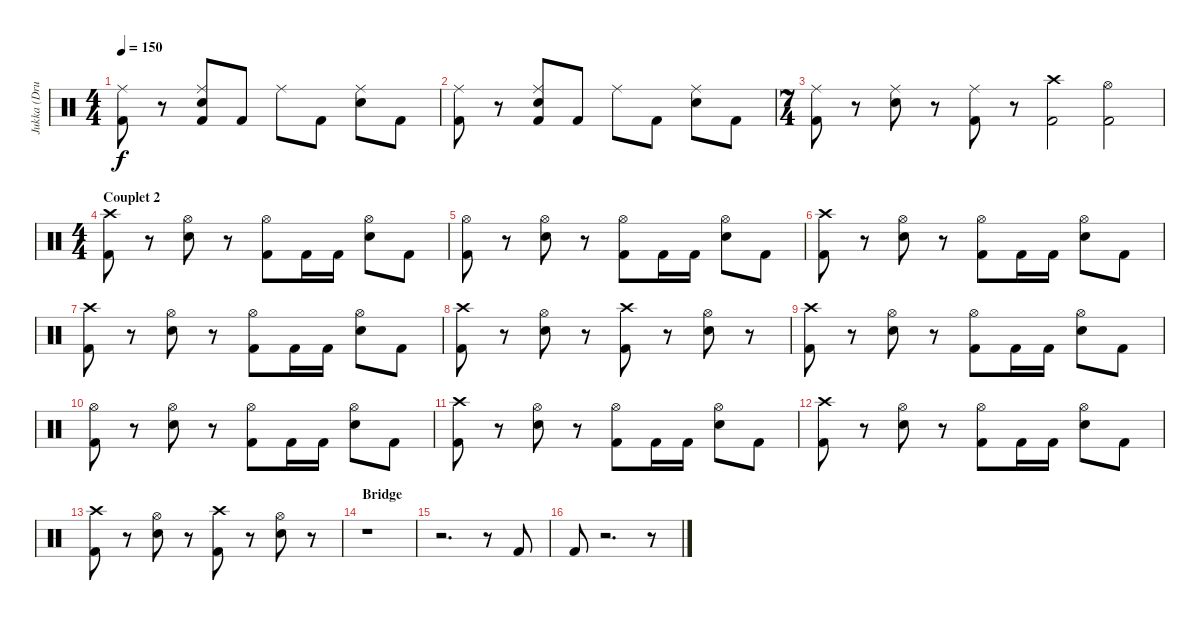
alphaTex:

\track ("Jukka (Drums)" "Jukka (Dru") {instrument percussion}
\staff {score}
\articulation defaults
\ts (4 4)
\tempo 150
\clef neutral
\ks c
("Kick (hit) 2" "Ride (middle)").8{dy f} r.8 ("Kick (hit) 2" "Ride (middle)" "Electric Snare (hit)").8 "Kick (hit) 2".8 "Ride (middle)".8 "Kick (hit) 2".8 ("Ride (middle)" "Electric Snare (hit)").8 "Kick (hit) 2".8 |
("Kick (hit) 2" "Ride (middle)").8 r.8 ("Kick (hit) 2" "Ride (middle)" "Electric Snare (hit)").8 "Kick (hit) 2".8 "Ride (middle)".8 "Kick (hit) 2".8 ("Ride (middle)" "Electric Snare (hit)").8 "Kick (hit) 2".8 |
\ts (7 4)
("Kick (hit) 2" "Ride (middle)").8 r.8 ("Ride (middle)" "Electric Snare (hit)").8 r.8 ("Ride (middle)" "Kick (hit) 2").8 r.8 ("Kick (hit) 2" "Crash high (hit)").2 ("Kick (hit) 2" "Hi-Hat (open)").2 |
\ts (4 4)
\section ("" "Couplet 2")
("Kick (hit) 2" "Crash high (hit)").8 r.8 ("Electric Snare (hit)" "Hi-Hat (open)").8 r.8 ("Hi-Hat (open)" "Kick (hit) 2").8 "Kick (hit) 2".16 "Kick (hit) 2".16 ("Electric Snare (hit)" "Hi-Hat (open)").8 "Kick (hit) 2".8 |
("Kick (hit) 2" "Hi-Hat (open)").8 r.8 ("Hi-Hat (open)" "Electric Snare (hit)").8 r.8 ("Kick (hit) 2" "Hi-Hat (open)").8 "Kick (hit) 2".16 "Kick (hit) 2".16 ("Electric Snare (hit)" "Hi-Hat (open)").8 "Kick (hit) 2".8 |
("Kick (hit) 2" "Crash high (hit)").8 r.8 ("Hi-Hat (open)" "Electric Snare (hit)").8 r.8 ("Kick (hit) 2" "Hi-Hat (open)").8 "Kick (hit) 2".16 "Kick (hit) 2".16 ("Hi-Hat (open)" "Electric Snare (hit)").8 "Kick (hit) 2".8 |
("Crash high (hit)" "Kick (hit) 2").8 r.8 ("Electric Snare (hit)" "Hi-Hat (open)").8 r.8 ("Kick (hit) 2" "Hi-Hat (open)").8 "Kick (hit) 2".16 "Kick (hit) 2".16 ("Hi-Hat (open)" "Electric Snare (hit)").8 "Kick (hit) 2".8 |
("Crash high (hit)" "Kick (hit) 2").8 r.8 ("Electric Snare (hit)" "Hi-Hat (open)").8 r.8 ("Crash high (hit)" "Kick (hit) 2").8 r.8 ("Electric Snare (hit)" "Hi-Hat (open)").8 r.8 |
("Kick (hit) 2" "Crash high (hit)").8 r.8 ("Electric Snare (hit)" "Hi-Hat (open)").8 r.8 ("Hi-Hat (open)" "Kick (hit) 2").8 "Kick (hit) 2".16 "Kick (hit) 2".16 ("Electric Snare (hit)" "Hi-Hat (open)").8 "Kick (hit) 2".8 |
("Kick (hit) 2" "Hi-Hat (open)").8 r.8 ("Hi-Hat (open)" "Electric Snare (hit)").8 r.8 ("Kick (hit) 2" "Hi-Hat (open)").8 "Kick (hit) 2".16 "Kick (hit) 2".16 ("Electric Snare (hit)" "Hi-Hat (open)").8 "Kick (hit) 2".8 |
("Kick (hit) 2" "Crash high (hit)").8 r.8 ("Hi-Hat (open)" "Electric Snare (hit)").8 r.8 ("Kick (hit) 2" "Hi-Hat (open)").8 "Kick (hit) 2".16 "Kick (hit) 2".16 ("Hi-Hat (open)" "Electric Snare (hit)").8 "Kick (hit) 2".8 |
("Crash high (hit)" "Kick (hit) 2").8 r.8 ("Electric Snare (hit)" "Hi-Hat (open)").8 r.8 ("Kick (hit) 2" "Hi-Hat (open)").8 "Kick (hit) 2".16 "Kick (hit) 2".16 ("Hi-Hat (open)" "Electric Snare (hit)").8 "Kick (hit) 2".8 |
("Crash high (hit)" "Kick (hit) 2").8 r.8 ("Electric Snare (hit)" "Hi-Hat (open)").8 r.8 ("Crash high (hit)" "Kick (hit) 2").8 r.8 ("Electric Snare (hit)" "Hi-Hat (open)").8 r.8 |
\section ("" "Bridge")
r.1 |
r.2{d} r.8 "Kick (hit) 2".8 |
"Kick (hit) 2".8 r.2{d} r.8
